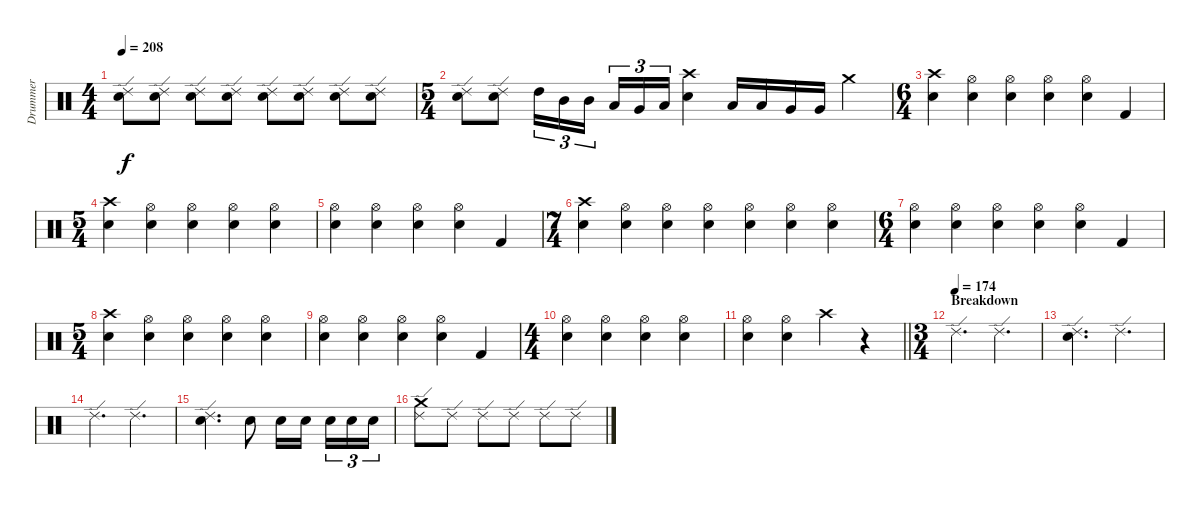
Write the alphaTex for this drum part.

\track ("Drummer" "Drummer") {instrument percussion}
\staff {score}
\articulation defaults
\ts (4 4)
\tempo 208
\clef neutral
\ks c
("Ride (edge) 2" "Electric Snare (hit)").8{dy f} ("Ride (edge) 2" "Electric Snare (hit)").8 ("Ride (edge) 2" "Electric Snare (hit)").8 ("Ride (edge) 2" "Electric Snare (hit)").8 ("Ride (edge) 2" "Electric Snare (hit)").8 ("Ride (edge) 2" "Electric Snare (hit)").8 ("Ride (edge) 2" "Electric Snare (hit)").8 ("Ride (edge) 2" "Electric Snare (hit)").8 |
\ts (5 4)
("Ride (edge) 2" "Electric Snare (hit)").8 ("Ride (edge) 2" "Electric Snare (hit)").8 "High Tom (hit)".16{tu (3 2)} "Mid Tom (hit)".16{tu (3 2)} "Mid Tom (hit)".16{tu (3 2) beam splitsecondary} "Low Tom (hit)".16{tu (3 2)} "Very Low Tom (hit)".16{tu (3 2)} "Low Floor Tom (hit)".16{tu (3 2)} ("Crash high (hit)" "Electric Snare (hit)").4 "Low Tom (hit)".16 "Low Tom (hit)".16 "Very Low Tom (hit)".16 "Very Low Tom (hit)".16 "Crash medium (hit)".4 |
\ts (6 4)
("Crash high (hit)" "Electric Snare (hit)").4 ("Hi-Hat (open)" "Electric Snare (hit)").4 ("Hi-Hat (open)" "Electric Snare (hit)").4 ("Hi-Hat (open)" "Electric Snare (hit)").4 ("Hi-Hat (open)" "Electric Snare (hit)").4 "Kick (hit) 2".4 |
\ts (5 4)
("Crash high (hit)" "Electric Snare (hit)").4 ("Hi-Hat (open)" "Electric Snare (hit)").4 ("Hi-Hat (open)" "Electric Snare (hit)").4 ("Hi-Hat (open)" "Electric Snare (hit)").4 ("Hi-Hat (open)" "Electric Snare (hit)").4 |
("Hi-Hat (open)" "Electric Snare (hit)").4 ("Hi-Hat (open)" "Electric Snare (hit)").4 ("Hi-Hat (open)" "Electric Snare (hit)").4 ("Hi-Hat (open)" "Electric Snare (hit)").4 "Kick (hit) 2".4 |
\ts (7 4)
("Crash high (hit)" "Electric Snare (hit)").4 ("Hi-Hat (open)" "Electric Snare (hit)").4 ("Hi-Hat (open)" "Electric Snare (hit)").4 ("Hi-Hat (open)" "Electric Snare (hit)").4 ("Hi-Hat (open)" "Electric Snare (hit)").4 ("Hi-Hat (open)" "Electric Snare (hit)").4 ("Hi-Hat (open)" "Electric Snare (hit)").4 |
\ts (6 4)
("Hi-Hat (open)" "Electric Snare (hit)").4 ("Hi-Hat (open)" "Electric Snare (hit)").4 ("Hi-Hat (open)" "Electric Snare (hit)").4 ("Hi-Hat (open)" "Electric Snare (hit)").4 ("Hi-Hat (open)" "Electric Snare (hit)").4 "Kick (hit) 2".4 |
\ts (5 4)
("Crash high (hit)" "Electric Snare (hit)").4 ("Hi-Hat (open)" "Electric Snare (hit)").4 ("Hi-Hat (open)" "Electric Snare (hit)").4 ("Hi-Hat (open)" "Electric Snare (hit)").4 ("Hi-Hat (open)" "Electric Snare (hit)").4 |
("Hi-Hat (open)" "Electric Snare (hit)").4 ("Hi-Hat (open)" "Electric Snare (hit)").4 ("Hi-Hat (open)" "Electric Snare (hit)").4 ("Hi-Hat (open)" "Electric Snare (hit)").4 "Kick (hit) 2".4 |
\ts (4 4)
("Hi-Hat (open)" "Electric Snare (hit)").4 ("Hi-Hat (open)" "Electric Snare (hit)").4 ("Hi-Hat (open)" "Electric Snare (hit)").4 ("Hi-Hat (open)" "Electric Snare (hit)").4 |
\barLineRight lightlight
("Hi-Hat (open)" "Electric Snare (hit)").4 ("Hi-Hat (open)" "Electric Snare (hit)").4 "Crash high (hit)".4 r.4 |
\ts (3 4)
\section ("" "Breakdown")
\tempo (174)
"Ride (edge) 2".4{d} "Ride (edge) 2".4{d} |
("Ride (edge) 2" "Electric Snare (hit)").4{d} "Ride (edge) 2".4{d} |
"Ride (edge) 2".4{d} "Ride (edge) 2".4{d} |
("Ride (edge) 2" "Electric Snare (hit)").4{d} "Electric Snare (hit)".8 "Electric Snare (hit)".16 "Electric Snare (hit)".16{beam splitsecondary} "Electric Snare (hit)".16{tu (3 2)} "Electric Snare (hit)".16{tu (3 2)} "Electric Snare (hit)".16{tu (3 2)} |
("Ride (edge) 2" "Crash medium (hit)").8 "Ride (edge) 2".8 "Ride (edge) 2".8 "Ride (edge) 2".8 "Ride (edge) 2".8 "Ride (edge) 2".8
